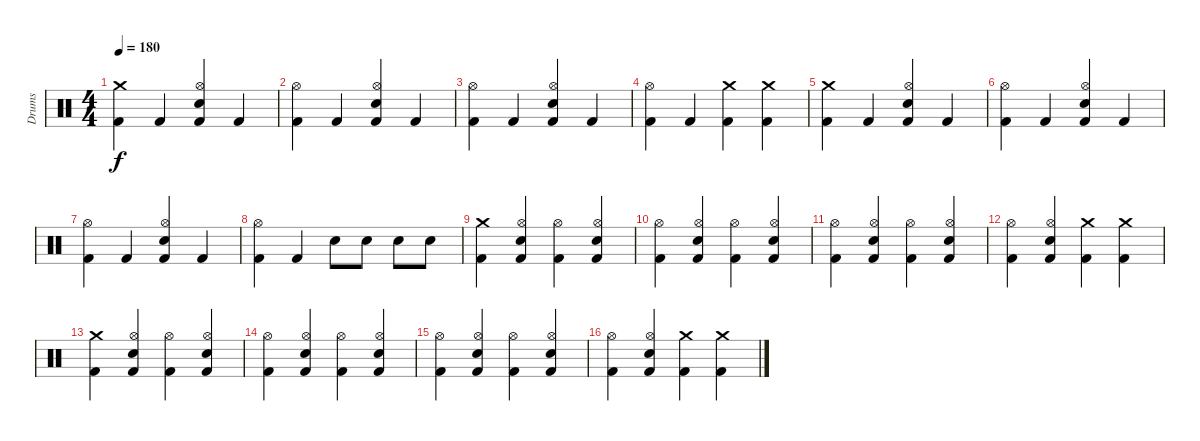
\track ("Drums" "Drums") {instrument percussion}
\staff {score}
\articulation defaults
\ts (4 4)
\tempo 180
\clef neutral
\ks c
("Crash medium (hit)" "Kick (hit) 2").4{dy f} "Kick (hit) 2".4 ("Hi-Hat (open)" "Snare (hit) 2" "Kick (hit) 2").4 "Kick (hit) 2".4 |
("Hi-Hat (open)" "Kick (hit) 2").4 "Kick (hit) 2".4 ("Hi-Hat (open)" "Snare (hit) 2" "Kick (hit) 2").4 "Kick (hit) 2".4 |
("Hi-Hat (open)" "Kick (hit) 2").4 "Kick (hit) 2".4 ("Hi-Hat (open)" "Snare (hit) 2" "Kick (hit) 2").4 "Kick (hit) 2".4 |
("Hi-Hat (open)" "Kick (hit) 2").4 "Kick (hit) 2".4 ("Crash medium (hit)" "Kick (hit) 2").4 ("Crash medium (hit)" "Kick (hit) 2").4 |
("Crash medium (hit)" "Kick (hit) 2").4 "Kick (hit) 2".4 ("Hi-Hat (open)" "Snare (hit) 2" "Kick (hit) 2").4 "Kick (hit) 2".4 |
("Hi-Hat (open)" "Kick (hit) 2").4 "Kick (hit) 2".4 ("Hi-Hat (open)" "Snare (hit) 2" "Kick (hit) 2").4 "Kick (hit) 2".4 |
("Hi-Hat (open)" "Kick (hit) 2").4 "Kick (hit) 2".4 ("Hi-Hat (open)" "Snare (hit) 2" "Kick (hit) 2").4 "Kick (hit) 2".4 |
("Hi-Hat (open)" "Kick (hit) 2").4 "Kick (hit) 2".4 "Snare (hit) 2".8 "Snare (hit) 2".8 "Snare (hit) 2".8 "Snare (hit) 2".8 |
("Crash medium (hit)" "Kick (hit) 2").4 ("Hi-Hat (open)" "Snare (hit) 2" "Kick (hit) 2").4 ("Hi-Hat (open)" "Kick (hit) 2").4 ("Hi-Hat (open)" "Snare (hit) 2" "Kick (hit) 2").4 |
("Hi-Hat (open)" "Kick (hit) 2").4 ("Hi-Hat (open)" "Snare (hit) 2" "Kick (hit) 2").4 ("Hi-Hat (open)" "Kick (hit) 2").4 ("Hi-Hat (open)" "Snare (hit) 2" "Kick (hit) 2").4 |
("Hi-Hat (open)" "Kick (hit) 2").4 ("Hi-Hat (open)" "Snare (hit) 2" "Kick (hit) 2").4 ("Hi-Hat (open)" "Kick (hit) 2").4 ("Hi-Hat (open)" "Snare (hit) 2" "Kick (hit) 2").4 |
("Hi-Hat (open)" "Kick (hit) 2").4 ("Hi-Hat (open)" "Snare (hit) 2" "Kick (hit) 2").4 ("Crash medium (hit)" "Kick (hit) 2").4 ("Crash medium (hit)" "Kick (hit) 2").4 |
("Crash medium (hit)" "Kick (hit) 2").4 ("Hi-Hat (open)" "Snare (hit) 2" "Kick (hit) 2").4 ("Hi-Hat (open)" "Kick (hit) 2").4 ("Hi-Hat (open)" "Snare (hit) 2" "Kick (hit) 2").4 |
("Hi-Hat (open)" "Kick (hit) 2").4 ("Hi-Hat (open)" "Snare (hit) 2" "Kick (hit) 2").4 ("Hi-Hat (open)" "Kick (hit) 2").4 ("Hi-Hat (open)" "Snare (hit) 2" "Kick (hit) 2").4 |
("Hi-Hat (open)" "Kick (hit) 2").4 ("Hi-Hat (open)" "Snare (hit) 2" "Kick (hit) 2").4 ("Hi-Hat (open)" "Kick (hit) 2").4 ("Hi-Hat (open)" "Snare (hit) 2" "Kick (hit) 2").4 |
("Hi-Hat (open)" "Kick (hit) 2").4 ("Hi-Hat (open)" "Snare (hit) 2" "Kick (hit) 2").4 ("Crash medium (hit)" "Kick (hit) 2").4 ("Crash medium (hit)" "Kick (hit) 2").4
